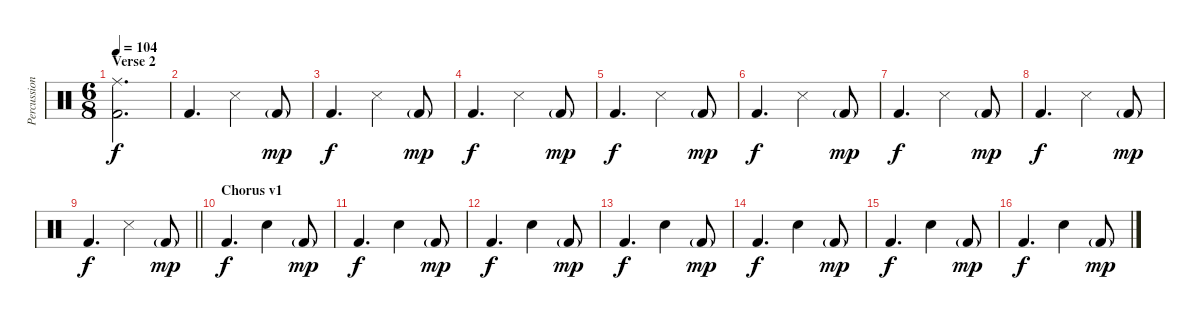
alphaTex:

\track ("Percussion" "Percussion") {instrument percussion}
\staff {score}
\articulation defaults
\ts (6 8)
\section ("" "Verse 2")
\tempo 104
\clef neutral
\ks c
("Ride (middle)" "Kick (hit) 2").2{d dy f} |
"Kick (hit) 2".4{d} "Snare (side stick) 3".4 "Kick (hit) 2"{g}.8{dy mp} |
"Kick (hit) 2".4{d dy f} "Snare (side stick) 3".4 "Kick (hit) 2"{g}.8{dy mp} |
"Kick (hit) 2".4{d dy f} "Snare (side stick) 3".4 "Kick (hit) 2"{g}.8{dy mp} |
"Kick (hit) 2".4{d dy f} "Snare (side stick) 3".4 "Kick (hit) 2"{g}.8{dy mp} |
"Kick (hit) 2".4{d dy f} "Snare (side stick) 3".4 "Kick (hit) 2"{g}.8{dy mp} |
"Kick (hit) 2".4{d dy f} "Snare (side stick) 3".4 "Kick (hit) 2"{g}.8{dy mp} |
"Kick (hit) 2".4{d dy f} "Snare (side stick) 3".4 "Kick (hit) 2"{g}.8{dy mp} |
\barLineRight lightlight "Kick (hit) 2".4{d dy f} "Snare (side stick) 3".4 "Kick (hit) 2"{g}.8{dy mp}
|
\section ("" "Chorus v1")
"Kick (hit) 2".4{d dy f} "Snare (hit) 2".4 "Kick (hit) 2"{g}.8{dy mp} |
"Kick (hit) 2".4{d dy f} "Snare (hit) 2".4 "Kick (hit) 2"{g}.8{dy mp} |
"Kick (hit) 2".4{d dy f} "Snare (hit) 2".4 "Kick (hit) 2"{g}.8{dy mp} |
"Kick (hit) 2".4{d dy f} "Snare (hit) 2".4 "Kick (hit) 2"{g}.8{dy mp} |
"Kick (hit) 2".4{d dy f} "Snare (hit) 2".4 "Kick (hit) 2"{g}.8{dy mp} |
"Kick (hit) 2".4{d dy f} "Snare (hit) 2".4 "Kick (hit) 2"{g}.8{dy mp} |
"Kick (hit) 2".4{d dy f} "Snare (hit) 2".4 "Kick (hit) 2"{g}.8{dy mp}
